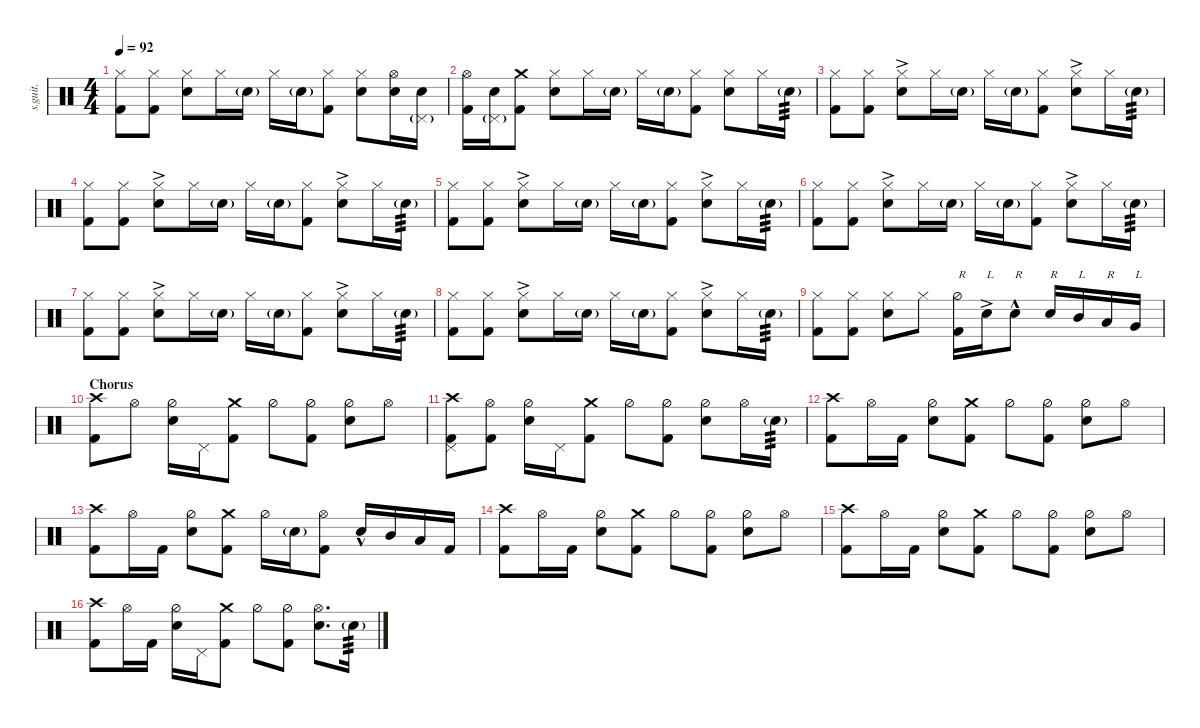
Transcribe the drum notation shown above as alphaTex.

\defaultSystemsLayout 4
\hideDynamics
\bracketExtendMode nobrackets
\track ("Chad Smith | Pearl Masters Series | Drums" "s.guit.") {instrument percussion}
\staff {score}
\articulation defaults
\ts (4 4)
\tempo 92
\clef neutral
\ks c
("Hi-Hat (closed)" "Kick (hit) 2").8{dy f} ("Hi-Hat (closed)" "Kick (hit) 2").8 ("Hi-Hat (closed)" "Snare (hit) 2").8 "Hi-Hat (closed)".16 "Snare (hit) 2"{g}.16 "Hi-Hat (closed)".16 "Snare (hit) 2"{g}.16 ("Hi-Hat (closed)" "Kick (hit) 2").8 ("Hi-Hat (closed)" "Snare (hit) 2").8 ("Hi-Hat (open)" "Snare (hit) 2").16 ("Snare (hit) 2" "Pedal Hi-Hat (hit)"{g}).16 |
("Hi-Hat (open)" "Kick (hit) 2").16 ("Snare (hit) 2" "Pedal Hi-Hat (hit)"{g}).16 ("Crash medium (hit)" "Kick (hit) 2").8 ("Hi-Hat (closed)" "Snare (hit) 2").8 "Hi-Hat (closed)".16 "Snare (hit) 2"{g}.16 "Hi-Hat (closed)".16 "Snare (hit) 2"{g}.16 ("Hi-Hat (closed)" "Kick (hit) 2").8 ("Hi-Hat (closed)" "Snare (hit) 2").8 "Hi-Hat (closed)".16 "Snare (hit) 2"{g}.16{tp 3} |
("Hi-Hat (closed)" "Kick (hit) 2").8 ("Hi-Hat (closed)" "Kick (hit) 2").8 ("Hi-Hat (closed)" "Snare (hit) 2"{ac}).8 "Hi-Hat (closed)".16 "Snare (hit) 2"{g}.16 "Hi-Hat (closed)".16 "Snare (hit) 2"{g}.16 ("Hi-Hat (closed)" "Kick (hit) 2").8 ("Hi-Hat (closed)" "Snare (hit) 2"{ac}).8 "Hi-Hat (closed)".16 "Snare (hit) 2"{g}.16{tp 3} |
("Hi-Hat (closed)" "Kick (hit) 2").8 ("Hi-Hat (closed)" "Kick (hit) 2").8 ("Hi-Hat (closed)" "Snare (hit) 2"{ac}).8 "Hi-Hat (closed)".16 "Snare (hit) 2"{g}.16 "Hi-Hat (closed)".16 "Snare (hit) 2"{g}.16 ("Hi-Hat (closed)" "Kick (hit) 2").8 ("Hi-Hat (closed)" "Snare (hit) 2"{ac}).8 "Hi-Hat (closed)".16 "Snare (hit) 2"{g}.16{tp 3} |
("Hi-Hat (closed)" "Kick (hit) 2").8 ("Hi-Hat (closed)" "Kick (hit) 2").8 ("Hi-Hat (closed)" "Snare (hit) 2"{ac}).8 "Hi-Hat (closed)".16 "Snare (hit) 2"{g}.16 "Hi-Hat (closed)".16 "Snare (hit) 2"{g}.16 ("Hi-Hat (closed)" "Kick (hit) 2").8 ("Hi-Hat (closed)" "Snare (hit) 2"{ac}).8 "Hi-Hat (closed)".16 "Snare (hit) 2"{g}.16{tp 3} |
("Hi-Hat (closed)" "Kick (hit) 2").8 ("Hi-Hat (closed)" "Kick (hit) 2").8 ("Hi-Hat (closed)" "Snare (hit) 2"{ac}).8 "Hi-Hat (closed)".16 "Snare (hit) 2"{g}.16 "Hi-Hat (closed)".16 "Snare (hit) 2"{g}.16 ("Hi-Hat (closed)" "Kick (hit) 2").8 ("Hi-Hat (closed)" "Snare (hit) 2"{ac}).8 "Hi-Hat (closed)".16 "Snare (hit) 2"{g}.16{tp 3} |
("Hi-Hat (closed)" "Kick (hit) 2").8 ("Hi-Hat (closed)" "Kick (hit) 2").8 ("Hi-Hat (closed)" "Snare (hit) 2"{ac}).8 "Hi-Hat (closed)".16 "Snare (hit) 2"{g}.16 "Hi-Hat (closed)".16 "Snare (hit) 2"{g}.16 ("Hi-Hat (closed)" "Kick (hit) 2").8 ("Hi-Hat (closed)" "Snare (hit) 2"{ac}).8 "Hi-Hat (closed)".16 "Snare (hit) 2"{g}.16{tp 3} |
("Hi-Hat (closed)" "Kick (hit) 2").8 ("Hi-Hat (closed)" "Kick (hit) 2").8 ("Hi-Hat (closed)" "Snare (hit) 2"{ac}).8 "Hi-Hat (closed)".16 "Snare (hit) 2"{g}.16 "Hi-Hat (closed)".16 "Snare (hit) 2"{g}.16 ("Hi-Hat (closed)" "Kick (hit) 2").8 ("Hi-Hat (closed)" "Snare (hit) 2"{ac}).8 "Hi-Hat (closed)".16 "Snare (hit) 2"{g}.16{tp 3} |
("Hi-Hat (closed)" "Kick (hit) 2").8 ("Hi-Hat (closed)" "Kick (hit) 2").8 ("Hi-Hat (closed)" "Snare (hit) 2").8 "Hi-Hat (closed)".8 ("Hi-Hat (half)" "Kick (hit) 2").16{txt "R"} "Snare (hit) 2"{ac}.16{txt "L"} "Snare (hit) 2"{hac}.8{txt "R"} "Snare (hit) 2".16{txt "R"} "Mid Tom (hit)".16{txt "L"} "Low Floor Tom (hit)".16{txt "R"} "Very Low Tom (hit)".16{txt "L"} |
\section ("" "Chorus")
("Crash high (hit)" "Kick (hit) 2").8 "Hi-Hat (open)".8 ("Hi-Hat (half)" "Snare (hit) 2").16 "Pedal Hi-Hat (hit)".16 ("Crash medium (hit)" "Kick (hit) 2").8 "Hi-Hat (half)".8 ("Hi-Hat (half)" "Kick (hit) 2").8 ("Hi-Hat (half)" "Snare (hit) 2").8 "Hi-Hat (open)".8 |
("Crash high (hit)" "Kick (hit) 2" "Pedal Hi-Hat (hit)").8 ("Hi-Hat (open)" "Kick (hit) 2").8 ("Hi-Hat (half)" "Snare (hit) 2").16 "Pedal Hi-Hat (hit)".16 ("Crash medium (hit)" "Kick (hit) 2").8 "Hi-Hat (half)".8 ("Hi-Hat (half)" "Kick (hit) 2").8 ("Hi-Hat (half)" "Snare (hit) 2").8 "Hi-Hat (open)".16 "Snare (hit) 2"{g}.16{tp 3} |
("Crash high (hit)" "Kick (hit) 2").8 "Hi-Hat (open)".16 "Kick (hit) 2".16 ("Hi-Hat (half)" "Snare (hit) 2").8 ("Crash medium (hit)" "Kick (hit) 2").8 "Hi-Hat (half)".8 ("Hi-Hat (half)" "Kick (hit) 2").8 ("Hi-Hat (half)" "Snare (hit) 2").8 "Hi-Hat (open)".8 |
("Crash high (hit)" "Kick (hit) 2").8 "Hi-Hat (open)".16 "Kick (hit) 2".16 ("Hi-Hat (half)" "Snare (hit) 2").8 ("Crash medium (hit)" "Kick (hit) 2").8 "Hi-Hat (half)".16 "Snare (hit) 2"{g}.16 ("Hi-Hat (open)" "Kick (hit) 2").8 "Snare (hit) 2"{hac}.16 "Mid Tom (hit)".16 "Low Floor Tom (hit)".16 "Kick (hit) 2".16 |
("Crash high (hit)" "Kick (hit) 2").8 "Hi-Hat (open)".16 "Kick (hit) 2".16 ("Hi-Hat (half)" "Snare (hit) 2").8 ("Crash medium (hit)" "Kick (hit) 2").8 "Hi-Hat (half)".8 ("Hi-Hat (half)" "Kick (hit) 2").8 ("Hi-Hat (half)" "Snare (hit) 2").8 "Hi-Hat (open)".8 |
("Crash high (hit)" "Kick (hit) 2").8 "Hi-Hat (open)".16 "Kick (hit) 2".16 ("Hi-Hat (half)" "Snare (hit) 2").8 ("Crash medium (hit)" "Kick (hit) 2").8 "Hi-Hat (half)".8 ("Hi-Hat (half)" "Kick (hit) 2").8 ("Hi-Hat (half)" "Snare (hit) 2").8 "Hi-Hat (open)".8 |
("Crash high (hit)" "Kick (hit) 2").8 "Hi-Hat (open)".16 "Kick (hit) 2".16 ("Hi-Hat (half)" "Snare (hit) 2").16 "Pedal Hi-Hat (hit)".16 ("Crash medium (hit)" "Kick (hit) 2").8 "Hi-Hat (half)".8 ("Hi-Hat (half)" "Kick (hit) 2").8 ("Hi-Hat (open)" "Snare (hit) 2").8{d} "Snare (hit) 2"{g}.16{tp 3}
